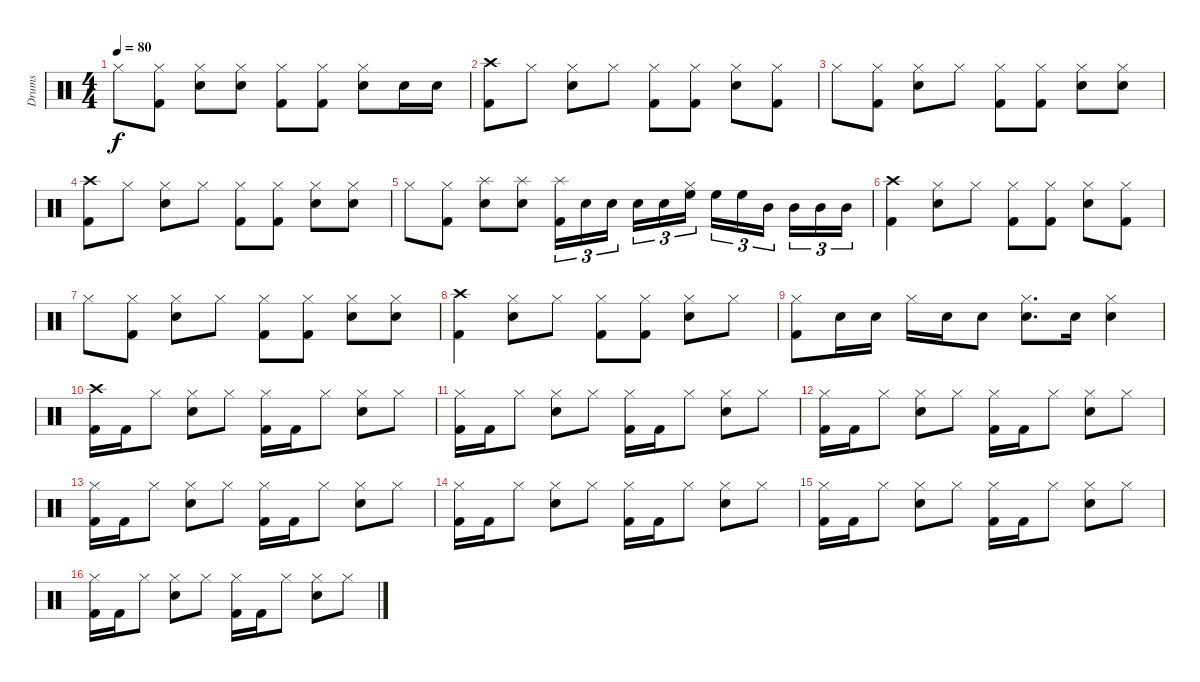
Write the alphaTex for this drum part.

\track ("Drums         " "Drums     ") {instrument percussion}
\staff {score}
\articulation defaults
\ts (4 4)
\tempo 80
\clef neutral
\ks c "Hi-Hat (closed)".8{dy f}
("Kick (hit) 2" "Hi-Hat (closed)").8 ("Snare (hit) 2" "Hi-Hat (closed)").8 ("Snare (hit) 2" "Hi-Hat (closed)").8 ("Kick (hit) 2" "Hi-Hat (closed)").8 ("Kick (hit) 2" "Hi-Hat (closed)").8 ("Snare (hit) 2" "Hi-Hat (closed)").8 "Snare (hit) 2".16 "Snare (hit) 2".16 |
("Kick (hit) 2" "Crash high (hit)").8 "Hi-Hat (closed)".8 ("Snare (hit) 2" "Hi-Hat (closed)").8 "Hi-Hat (closed)".8 ("Kick (hit) 2" "Hi-Hat (closed)").8 ("Kick (hit) 2" "Hi-Hat (closed)").8 ("Snare (hit) 2" "Hi-Hat (closed)").8 ("Kick (hit) 2" "Hi-Hat (closed)").8 |
"Hi-Hat (closed)".8 ("Kick (hit) 2" "Hi-Hat (closed)").8 ("Snare (hit) 2" "Hi-Hat (closed)").8 "Hi-Hat (closed)".8 ("Kick (hit) 2" "Hi-Hat (closed)").8 ("Kick (hit) 2" "Hi-Hat (closed)").8 ("Snare (hit) 2" "Hi-Hat (closed)").8 ("Snare (hit) 2" "Hi-Hat (closed)").8 |
("Kick (hit) 2" "Crash high (hit)").8 "Hi-Hat (closed)".8 ("Snare (hit) 2" "Hi-Hat (closed)").8 "Hi-Hat (closed)".8 ("Kick (hit) 2" "Hi-Hat (closed)").8 ("Kick (hit) 2" "Hi-Hat (closed)").8 ("Snare (hit) 2" "Hi-Hat (closed)").8 ("Snare (hit) 2" "Hi-Hat (closed)").8 |
"Hi-Hat (closed)".8 ("Kick (hit) 2" "Hi-Hat (closed)").8 ("Snare (hit) 2" "Splash (hit)").8 ("Snare (hit) 2" "Splash (hit)").8 ("Kick (hit) 2" "Splash (hit)").16{tu (3 2)} "Snare (hit) 2".16{tu (3 2)} "Snare (hit) 2".16{tu (3 2) beam splitsecondary} "Snare (hit) 2".16{tu (3 2)} "Snare (hit) 2".16{tu (3 2)} ("High Floor Tom (hit)" "Hi-Hat (closed)").16{tu (3 2)} "High Floor Tom (hit)".16{tu (3 2)} "High Floor Tom (hit)".16{tu (3 2)} "Mid Tom (hit)".16{tu (3 2) beam splitsecondary} "Mid Tom (hit)".16{tu (3 2)} "Mid Tom (hit)".16{tu (3 2)} "Mid Tom (hit)".16{tu (3 2)} |
("Kick (hit) 2" "Crash high (hit)").4 ("Snare (hit) 2" "Hi-Hat (closed)").8 "Hi-Hat (closed)".8 ("Kick (hit) 2" "Hi-Hat (closed)").8 ("Kick (hit) 2" "Hi-Hat (closed)").8 ("Snare (hit) 2" "Hi-Hat (closed)").8 ("Kick (hit) 2" "Hi-Hat (closed)").8 |
"Hi-Hat (closed)".8 ("Kick (hit) 2" "Hi-Hat (closed)").8 ("Snare (hit) 2" "Hi-Hat (closed)").8 "Hi-Hat (closed)".8 ("Kick (hit) 2" "Hi-Hat (closed)").8 ("Kick (hit) 2" "Hi-Hat (closed)").8 ("Snare (hit) 2" "Hi-Hat (closed)").8 ("Snare (hit) 2" "Hi-Hat (closed)").8 |
("Kick (hit) 2" "Crash high (hit)").4 ("Snare (hit) 2" "Hi-Hat (closed)").8 "Hi-Hat (closed)".8 ("Kick (hit) 2" "Hi-Hat (closed)").8 ("Kick (hit) 2" "Hi-Hat (closed)").8 ("Snare (hit) 2" "Hi-Hat (closed)").8 "Hi-Hat (closed)".8 |
("Kick (hit) 2" "Hi-Hat (closed)").8 "Snare (hit) 2".16 "Snare (hit) 2".16 "Hi-Hat (closed)".16 "Snare (hit) 2".16 "Snare (hit) 2".8 ("Snare (hit) 2" "Hi-Hat (closed)").8{d} "Snare (hit) 2".16 ("Snare (hit) 2" "Hi-Hat (closed)").4 |
("Kick (hit) 2" "Crash high (hit)").16 "Kick (hit) 2".16 "Hi-Hat (closed)".8 ("Snare (hit) 2" "Hi-Hat (closed)").8 "Hi-Hat (closed)".8 ("Kick (hit) 2" "Hi-Hat (closed)").16 "Kick (hit) 2".16 "Hi-Hat (closed)".8 ("Snare (hit) 2" "Hi-Hat (closed)").8 "Hi-Hat (closed)".8 |
("Kick (hit) 2" "Hi-Hat (closed)").16 "Kick (hit) 2".16 "Hi-Hat (closed)".8 ("Snare (hit) 2" "Hi-Hat (closed)").8 "Hi-Hat (closed)".8 ("Kick (hit) 2" "Hi-Hat (closed)").16 "Kick (hit) 2".16 "Hi-Hat (closed)".8 ("Snare (hit) 2" "Hi-Hat (closed)").8 "Hi-Hat (closed)".8 |
("Kick (hit) 2" "Hi-Hat (closed)").16 "Kick (hit) 2".16 "Hi-Hat (closed)".8 ("Snare (hit) 2" "Hi-Hat (closed)").8 "Hi-Hat (closed)".8 ("Kick (hit) 2" "Hi-Hat (closed)").16 "Kick (hit) 2".16 "Hi-Hat (closed)".8 ("Snare (hit) 2" "Hi-Hat (closed)").8 "Hi-Hat (closed)".8 |
("Kick (hit) 2" "Hi-Hat (closed)").16 "Kick (hit) 2".16 "Hi-Hat (closed)".8 ("Snare (hit) 2" "Hi-Hat (closed)").8 "Hi-Hat (closed)".8 ("Kick (hit) 2" "Hi-Hat (closed)").16 "Kick (hit) 2".16 "Hi-Hat (closed)".8 ("Snare (hit) 2" "Hi-Hat (closed)").8 "Hi-Hat (closed)".8 |
("Kick (hit) 2" "Hi-Hat (closed)").16 "Kick (hit) 2".16 "Hi-Hat (closed)".8 ("Snare (hit) 2" "Hi-Hat (closed)").8 "Hi-Hat (closed)".8 ("Kick (hit) 2" "Hi-Hat (closed)").16 "Kick (hit) 2".16 "Hi-Hat (closed)".8 ("Snare (hit) 2" "Hi-Hat (closed)").8 "Hi-Hat (closed)".8 |
("Kick (hit) 2" "Hi-Hat (closed)").16 "Kick (hit) 2".16 "Hi-Hat (closed)".8 ("Snare (hit) 2" "Hi-Hat (closed)").8 "Hi-Hat (closed)".8 ("Kick (hit) 2" "Hi-Hat (closed)").16 "Kick (hit) 2".16 "Hi-Hat (closed)".8 ("Snare (hit) 2" "Hi-Hat (closed)").8 "Hi-Hat (closed)".8 |
("Kick (hit) 2" "Hi-Hat (closed)").16 "Kick (hit) 2".16 "Hi-Hat (closed)".8 ("Snare (hit) 2" "Hi-Hat (closed)").8 "Hi-Hat (closed)".8 ("Kick (hit) 2" "Hi-Hat (closed)").16 "Kick (hit) 2".16 "Hi-Hat (closed)".8 ("Snare (hit) 2" "Hi-Hat (closed)").8 "Hi-Hat (closed)".8
